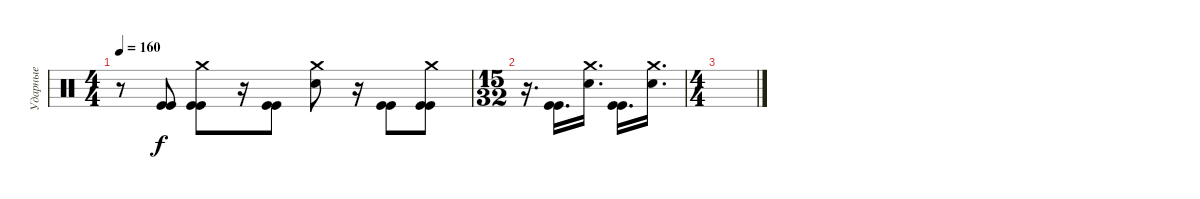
\track ("Ударные" "Ударные") {instrument percussion}
\staff {score}
\articulation defaults
\ts (4 4)
\tempo 160
\clef neutral
\ks c
r.8{dy f} ("Kick (hit)" "Kick (hit)").8 ("Crash medium (hit)" "Kick (hit)" "Kick (hit)").8 r.16 ("Kick (hit)" "Kick (hit)").8 ("Crash medium (hit)" "Electric Snare (hit)").8 r.16 ("Kick (hit)" "Kick (hit)").8 ("Crash medium (hit)" "Kick (hit)" "Kick (hit)").8 |
\ts (15 32)
r.16{d} ("Kick (hit)" "Kick (hit)").16{d} ("Crash medium (hit)" "Electric Snare (hit)").16{d} ("Kick (hit)" "Kick (hit)").16{d} ("Crash medium (hit)" "Electric Snare (hit)").16{d} |
\ts (4 4)
